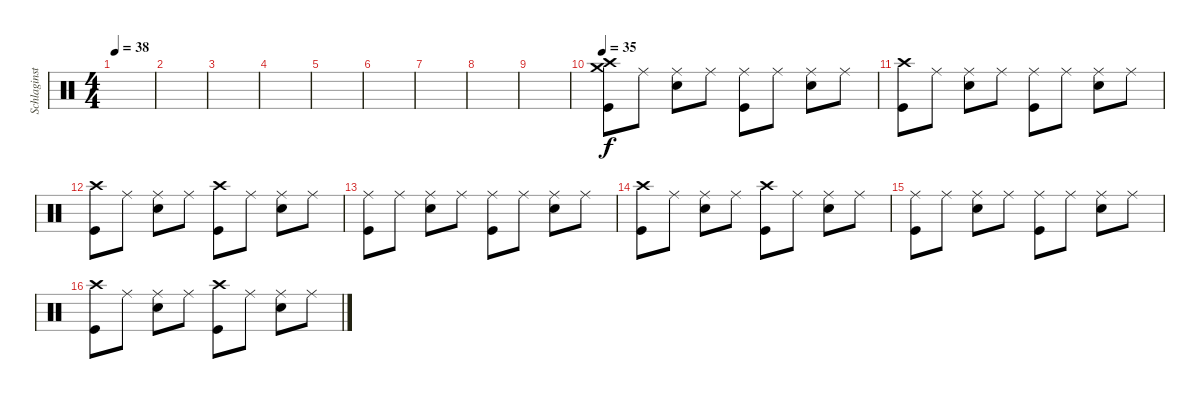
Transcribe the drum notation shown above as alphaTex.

\track ("Schlaginstrumente - Auswahl" "Schlaginst") {instrument percussion}
\staff {score}
\articulation defaults
\ts (4 4)
\tempo 38
\clef neutral
\ks c
|
|
|
|
|
|
|
|
|
\tempo 35
("Crash medium (hit)" "Crash high (hit)" "Kick (hit)").8 "Ride (middle)".8 ("Ride (middle)" "Snare (hit) 2").8 "Ride (middle)".8 ("Ride (middle)" "Kick (hit)").8 "Ride (middle)".8 ("Ride (middle)" "Snare (hit) 2").8 "Ride (middle)".8 |
("Crash high (hit)" "Kick (hit)").8 "Ride (middle)".8 ("Ride (middle)" "Snare (hit) 2").8 "Ride (middle)".8 ("Ride (middle)" "Kick (hit)").8 "Ride (middle)".8 ("Ride (middle)" "Snare (hit) 2").8 "Ride (middle)".8 |
("Crash high (hit)" "Kick (hit)").8 "Ride (middle)".8 ("Ride (middle)" "Snare (hit) 2").8 "Ride (middle)".8 ("Crash high (hit)" "Kick (hit)").8 "Ride (middle)".8 ("Ride (middle)" "Snare (hit) 2").8 "Ride (middle)".8 |
("Ride (middle)" "Kick (hit)").8 "Ride (middle)".8 ("Ride (middle)" "Snare (hit) 2").8 "Ride (middle)".8 ("Ride (middle)" "Kick (hit)").8 "Ride (middle)".8 ("Ride (middle)" "Snare (hit) 2").8 "Ride (middle)".8 |
("Crash high (hit)" "Kick (hit)").8 "Ride (middle)".8 ("Ride (middle)" "Snare (hit) 2").8 "Ride (middle)".8 ("Crash high (hit)" "Kick (hit)").8 "Ride (middle)".8 ("Ride (middle)" "Snare (hit) 2").8 "Ride (middle)".8 |
("Ride (middle)" "Kick (hit)").8 "Ride (middle)".8 ("Ride (middle)" "Snare (hit) 2").8 "Ride (middle)".8 ("Ride (middle)" "Kick (hit)").8 "Ride (middle)".8 ("Ride (middle)" "Snare (hit) 2").8 "Ride (middle)".8 |
("Crash high (hit)" "Kick (hit)").8 "Ride (middle)".8 ("Ride (middle)" "Snare (hit) 2").8 "Ride (middle)".8 ("Crash high (hit)" "Kick (hit)").8 "Ride (middle)".8 ("Ride (middle)" "Snare (hit) 2").8 "Ride (middle)".8
